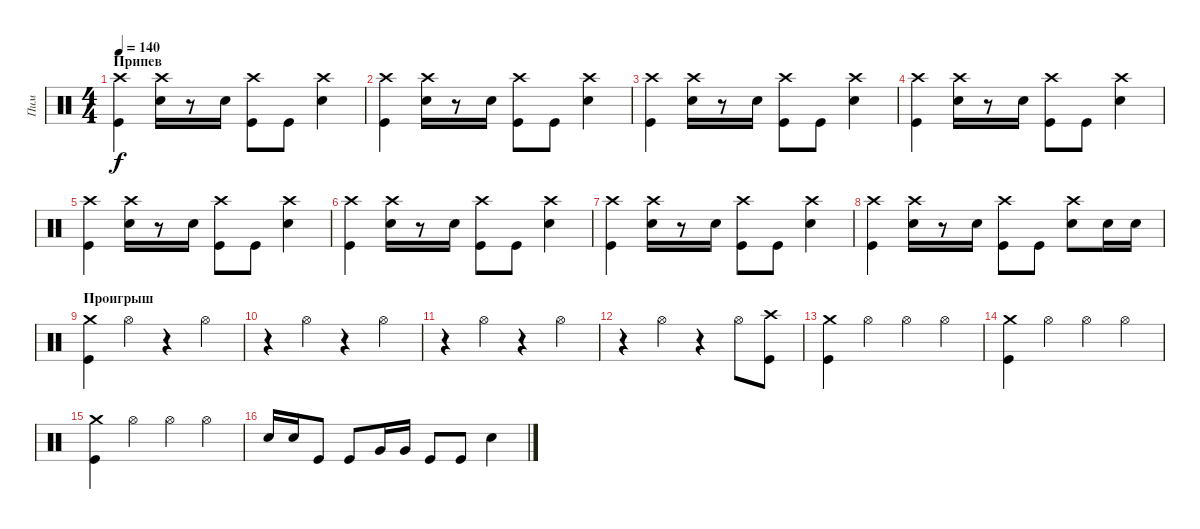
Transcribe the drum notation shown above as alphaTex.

\track ("Пим" "Пим") {instrument percussion}
\staff {score}
\articulation defaults
\ts (4 4)
\section ("" "Припев")
\tempo 140
\clef neutral
\ks c
("Crash high (hit)" "Kick (hit)").4{dy f} ("Crash high (hit)" "Snare (hit) 2").16 r.8 "Snare (hit) 2".16 ("Crash high (hit)" "Kick (hit)").8 "Kick (hit)".8 ("Crash high (hit)" "Snare (hit) 2").4 |
("Crash high (hit)" "Kick (hit)").4 ("Crash high (hit)" "Snare (hit) 2").16 r.8 "Snare (hit) 2".16 ("Crash high (hit)" "Kick (hit)").8 "Kick (hit)".8 ("Crash high (hit)" "Snare (hit) 2").4 |
("Crash high (hit)" "Kick (hit)").4 ("Crash high (hit)" "Snare (hit) 2").16 r.8 "Snare (hit) 2".16 ("Crash high (hit)" "Kick (hit)").8 "Kick (hit)".8 ("Crash high (hit)" "Snare (hit) 2").4 |
("Crash high (hit)" "Kick (hit)").4 ("Crash high (hit)" "Snare (hit) 2").16 r.8 "Snare (hit) 2".16 ("Crash high (hit)" "Kick (hit)").8 "Kick (hit)".8 ("Crash high (hit)" "Snare (hit) 2").4 |
("Crash high (hit)" "Kick (hit)").4 ("Crash high (hit)" "Snare (hit) 2").16 r.8 "Snare (hit) 2".16 ("Crash high (hit)" "Kick (hit)").8 "Kick (hit)".8 ("Crash high (hit)" "Snare (hit) 2").4 |
("Crash high (hit)" "Kick (hit)").4 ("Crash high (hit)" "Snare (hit) 2").16 r.8 "Snare (hit) 2".16 ("Crash high (hit)" "Kick (hit)").8 "Kick (hit)".8 ("Crash high (hit)" "Snare (hit) 2").4 |
("Crash high (hit)" "Kick (hit)").4 ("Crash high (hit)" "Snare (hit) 2").16 r.8 "Snare (hit) 2".16 ("Crash high (hit)" "Kick (hit)").8 "Kick (hit)".8 ("Crash high (hit)" "Snare (hit) 2").4 |
("Crash high (hit)" "Kick (hit)").4 ("Crash high (hit)" "Snare (hit) 2").16 r.8 "Snare (hit) 2".16 ("Crash high (hit)" "Kick (hit)").8 "Kick (hit)".8 ("Crash high (hit)" "Snare (hit) 2").8 "Snare (hit) 2".16 "Snare (hit) 2".16 |
\section ("" "Проигрыш")
("Crash medium (hit)" "Kick (hit)").4 "Hi-Hat (open)".4 r.4 "Hi-Hat (open)".4 |
r.4 "Hi-Hat (open)".4 r.4 "Hi-Hat (open)".4 |
r.4 "Hi-Hat (open)".4 r.4 "Hi-Hat (open)".4 |
r.4 "Hi-Hat (open)".4 r.4 "Hi-Hat (open)".8 ("Crash high (hit)" "Kick (hit)").8 |
("Crash medium (hit)" "Kick (hit)").4 "Hi-Hat (open)".4 "Hi-Hat (open)".4 "Hi-Hat (open)".4 |
("Crash medium (hit)" "Kick (hit)").4 "Hi-Hat (open)".4 "Hi-Hat (open)".4 "Hi-Hat (open)".4 |
("Crash medium (hit)" "Kick (hit)").4 "Hi-Hat (open)".4 "Hi-Hat (open)".4 "Hi-Hat (open)".4 |
"Snare (hit) 2".16 "Snare (hit) 2".16 "Kick (hit)".8 "Kick (hit)".8 "Very Low Tom (hit)".16 "Very Low Tom (hit)".16 "Kick (hit)".8 "Kick (hit)".8 "Snare (hit) 2".4
